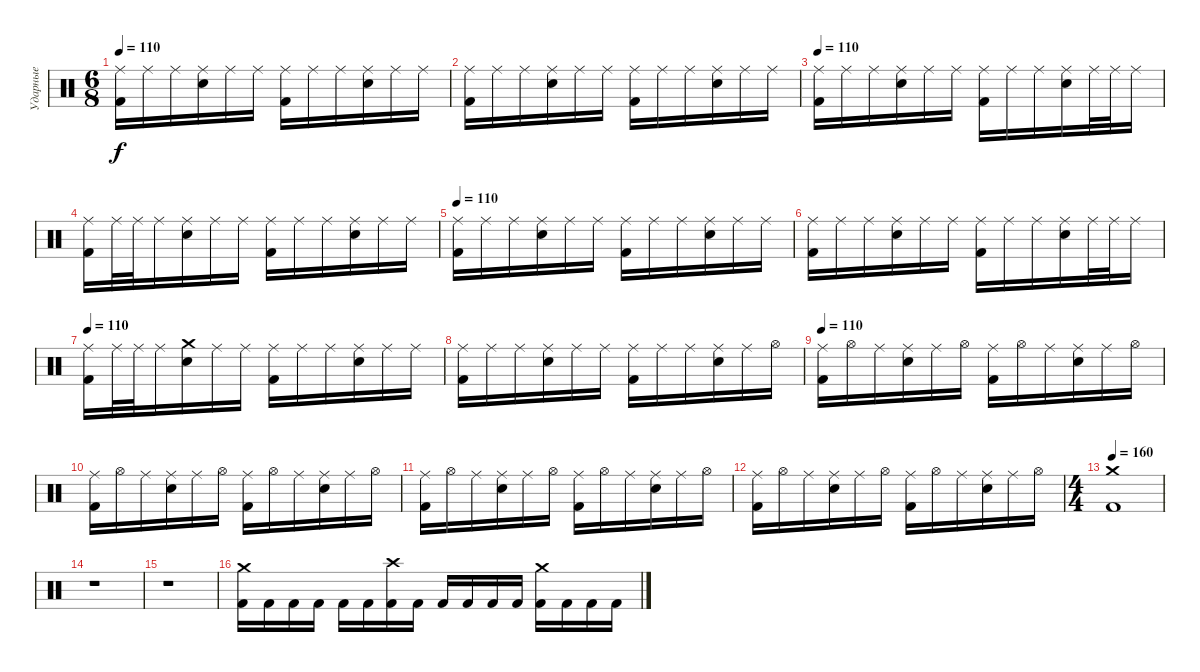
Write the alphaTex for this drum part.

\track ("Ударные" "Ударные") {instrument percussion}
\staff {score}
\articulation defaults
\ts (6 8)
\tempo 110
\clef neutral
\ks c
("Ride (middle)" "Kick (hit) 2").16{dy f} "Ride (middle)".16 "Ride (middle)".16 ("Ride (middle)" "Electric Snare (hit)").16 "Ride (middle)".16 "Ride (middle)".16 ("Ride (middle)" "Kick (hit) 2").16 "Ride (middle)".16 "Ride (middle)".16 ("Ride (middle)" "Electric Snare (hit)").16 "Ride (middle)".16 "Ride (middle)".16 |
("Ride (middle)" "Kick (hit) 2").16 "Ride (middle)".16 "Ride (middle)".16 ("Ride (middle)" "Electric Snare (hit)").16 "Ride (middle)".16 "Ride (middle)".16 ("Ride (middle)" "Kick (hit) 2").16 "Ride (middle)".16 "Ride (middle)".16 ("Ride (middle)" "Electric Snare (hit)").16 "Ride (middle)".16 "Ride (middle)".16 |
\tempo 110
("Ride (middle)" "Kick (hit) 2").16 "Ride (middle)".16 "Ride (middle)".16 ("Ride (middle)" "Electric Snare (hit)").16 "Ride (middle)".16 "Ride (middle)".16 ("Ride (middle)" "Kick (hit) 2").16 "Ride (middle)".16 "Ride (middle)".16 ("Ride (middle)" "Electric Snare (hit)").16 "Ride (middle)".32 "Ride (middle)".32 "Ride (middle)".16 |
("Ride (middle)" "Kick (hit) 2").16 "Ride (middle)".32 "Ride (middle)".32 "Ride (middle)".16 ("Ride (middle)" "Electric Snare (hit)").16 "Ride (middle)".16 "Ride (middle)".16 ("Ride (middle)" "Kick (hit) 2").16 "Ride (middle)".16 "Ride (middle)".16 ("Ride (middle)" "Electric Snare (hit)").16 "Ride (middle)".16 "Ride (middle)".16 |
\tempo 110
("Ride (middle)" "Kick (hit) 2").16 "Ride (middle)".16 "Ride (middle)".16 ("Ride (middle)" "Electric Snare (hit)").16 "Ride (middle)".16 "Ride (middle)".16 ("Ride (middle)" "Kick (hit) 2").16 "Ride (middle)".16 "Ride (middle)".16 ("Ride (middle)" "Electric Snare (hit)").16 "Ride (middle)".16 "Ride (middle)".16 |
("Ride (middle)" "Kick (hit) 2").16 "Ride (middle)".16 "Ride (middle)".16 ("Ride (middle)" "Electric Snare (hit)").16 "Ride (middle)".16 "Ride (middle)".16 ("Ride (middle)" "Kick (hit) 2").16 "Ride (middle)".16 "Ride (middle)".16 ("Ride (middle)" "Electric Snare (hit)").16 "Ride (middle)".32 "Ride (middle)".32 "Ride (middle)".16 |
\tempo 110
("Ride (middle)" "Kick (hit) 2").16 "Ride (middle)".32 "Ride (middle)".32 "Ride (middle)".16 ("Crash medium (hit)" "Electric Snare (hit)").16 "Ride (middle)".16 "Ride (middle)".16 ("Ride (middle)" "Kick (hit) 2").16 "Ride (middle)".16 "Ride (middle)".16 ("Ride (middle)" "Electric Snare (hit)").16 "Ride (middle)".16 "Ride (middle)".16 |
("Ride (middle)" "Kick (hit) 2").16 "Ride (middle)".16 "Ride (middle)".16 ("Ride (middle)" "Electric Snare (hit)").16 "Ride (middle)".16 "Ride (middle)".16 ("Ride (middle)" "Kick (hit) 2").16 "Ride (middle)".16 "Ride (middle)".16 ("Ride (middle)" "Electric Snare (hit)").16 "Ride (middle)".16 "Hi-Hat (open)".16 |
\tempo 110
("Ride (middle)" "Kick (hit) 2").16 "Hi-Hat (open)".16 "Ride (middle)".16 ("Ride (middle)" "Electric Snare (hit)").16 "Ride (middle)".16 "Hi-Hat (open)".16 ("Ride (middle)" "Kick (hit) 2").16 "Hi-Hat (open)".16 "Ride (middle)".16 ("Ride (middle)" "Electric Snare (hit)").16 "Ride (middle)".16 "Hi-Hat (open)".16 |
("Ride (middle)" "Kick (hit) 2").16 "Hi-Hat (open)".16 "Ride (middle)".16 ("Ride (middle)" "Electric Snare (hit)").16 "Ride (middle)".16 "Hi-Hat (open)".16 ("Ride (middle)" "Kick (hit) 2").16 "Hi-Hat (open)".16 "Ride (middle)".16 ("Ride (middle)" "Electric Snare (hit)").16 "Ride (middle)".16 "Hi-Hat (open)".16 |
("Ride (middle)" "Kick (hit) 2").16 "Hi-Hat (open)".16 "Ride (middle)".16 ("Ride (middle)" "Electric Snare (hit)").16 "Ride (middle)".16 "Hi-Hat (open)".16 ("Ride (middle)" "Kick (hit) 2").16 "Hi-Hat (open)".16 "Ride (middle)".16 ("Ride (middle)" "Electric Snare (hit)").16 "Ride (middle)".16 "Hi-Hat (open)".16 |
("Ride (middle)" "Kick (hit) 2").16 "Hi-Hat (open)".16 "Ride (middle)".16 ("Ride (middle)" "Electric Snare (hit)").16 "Ride (middle)".16 "Hi-Hat (open)".16 ("Ride (middle)" "Kick (hit) 2").16 "Hi-Hat (open)".16 "Ride (middle)".16 ("Ride (middle)" "Electric Snare (hit)").16 "Ride (middle)".16 "Hi-Hat (open)".16 |
\ts (4 4)
\tempo 160
("Kick (hit) 2" "Crash medium (hit)").1 |
r.1 |
r.1 |
("Kick (hit) 2" "Crash medium (hit)").16 "Kick (hit) 2".16 "Kick (hit) 2".16 "Kick (hit) 2".16 "Kick (hit) 2".16 "Kick (hit) 2".16 ("Kick (hit) 2" "Crash high (hit)").16 "Kick (hit) 2".16 "Kick (hit) 2".16 "Kick (hit) 2".16 "Kick (hit) 2".16 "Kick (hit) 2".16 ("Kick (hit) 2" "Crash medium (hit)").16 "Kick (hit) 2".16 "Kick (hit) 2".16 "Kick (hit) 2".16
